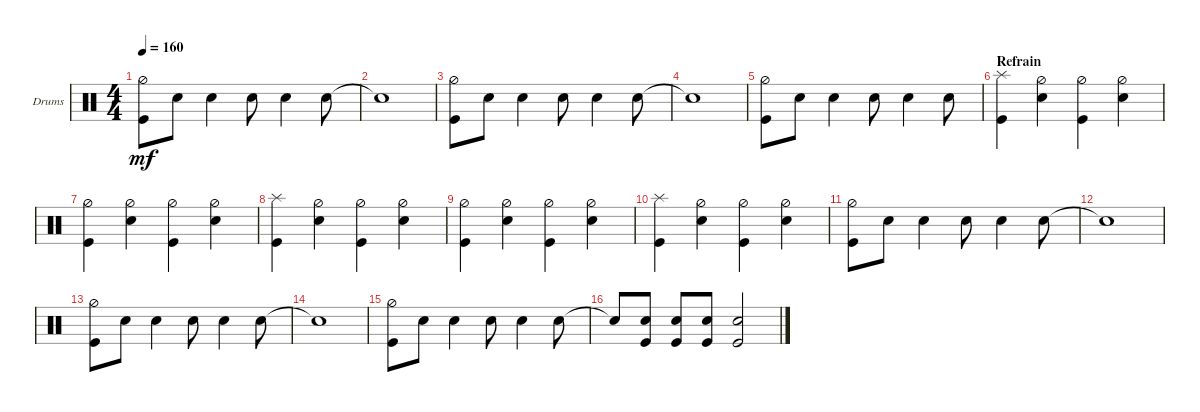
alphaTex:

\defaultSystemsLayout 4
\bracketExtendMode groupsimilarinstruments
\firstSystemTrackNameOrientation horizontal
\otherSystemsTrackNameOrientation horizontal
\track ("Drumkit" "Drums") {instrument percussion}
\staff {score}
\articulation defaults
\ts (4 4)
\tempo 160
\clef neutral
\ks c
("Hi-Hat (half)" "Kick (hit)").8{dy mf} "Snare (hit) 2".8 "Snare (hit) 2".4 "Snare (hit) 2".8 "Snare (hit) 2".4 "Snare (hit) 2".8 |
"Snare (hit) 2"{t}.1 |
("Hi-Hat (half)" "Kick (hit)").8 "Snare (hit) 2".8 "Snare (hit) 2".4 "Snare (hit) 2".8 "Snare (hit) 2".4 "Snare (hit) 2".8 |
"Snare (hit) 2"{t}.1 |
("Hi-Hat (half)" "Kick (hit)").8 "Snare (hit) 2".8 "Snare (hit) 2".4 "Snare (hit) 2".8 "Snare (hit) 2".4 "Snare (hit) 2".8 |
\section ("" "Refrain")
("Kick (hit)" "Splash (hit)").4 ("Hi-Hat (half)" "Snare (hit) 2").4 ("Hi-Hat (half)" "Kick (hit)").4 ("Hi-Hat (half)" "Snare (hit) 2").4 |
("Hi-Hat (half)" "Kick (hit)").4 ("Hi-Hat (half)" "Snare (hit) 2").4 ("Hi-Hat (half)" "Kick (hit)").4 ("Hi-Hat (half)" "Snare (hit) 2").4 |
("Kick (hit)" "Splash (hit)").4 ("Hi-Hat (half)" "Snare (hit) 2").4 ("Hi-Hat (half)" "Kick (hit)").4 ("Hi-Hat (half)" "Snare (hit) 2").4 |
("Hi-Hat (half)" "Kick (hit)").4 ("Hi-Hat (half)" "Snare (hit) 2").4 ("Hi-Hat (half)" "Kick (hit)").4 ("Hi-Hat (half)" "Snare (hit) 2").4 |
("Kick (hit)" "Splash (hit)").4 ("Hi-Hat (half)" "Snare (hit) 2").4 ("Hi-Hat (half)" "Kick (hit)").4 ("Hi-Hat (half)" "Snare (hit) 2").4 |
("Hi-Hat (half)" "Kick (hit)").8 "Snare (hit) 2".8 "Snare (hit) 2".4 "Snare (hit) 2".8 "Snare (hit) 2".4 "Snare (hit) 2".8 |
"Snare (hit) 2"{t}.1 |
("Hi-Hat (half)" "Kick (hit)").8 "Snare (hit) 2".8 "Snare (hit) 2".4 "Snare (hit) 2".8 "Snare (hit) 2".4 "Snare (hit) 2".8 |
"Snare (hit) 2"{t}.1 |
("Hi-Hat (half)" "Kick (hit)").8 "Snare (hit) 2".8 "Snare (hit) 2".4 "Snare (hit) 2".8 "Snare (hit) 2".4 "Snare (hit) 2".8 |
"Snare (hit) 2"{t}.8 ("Snare (hit) 2" "Kick (hit)").8 ("Kick (hit)" "Snare (hit) 2").8 ("Kick (hit)" "Snare (hit) 2").8 ("Kick (hit)" "Snare (hit) 2").2
